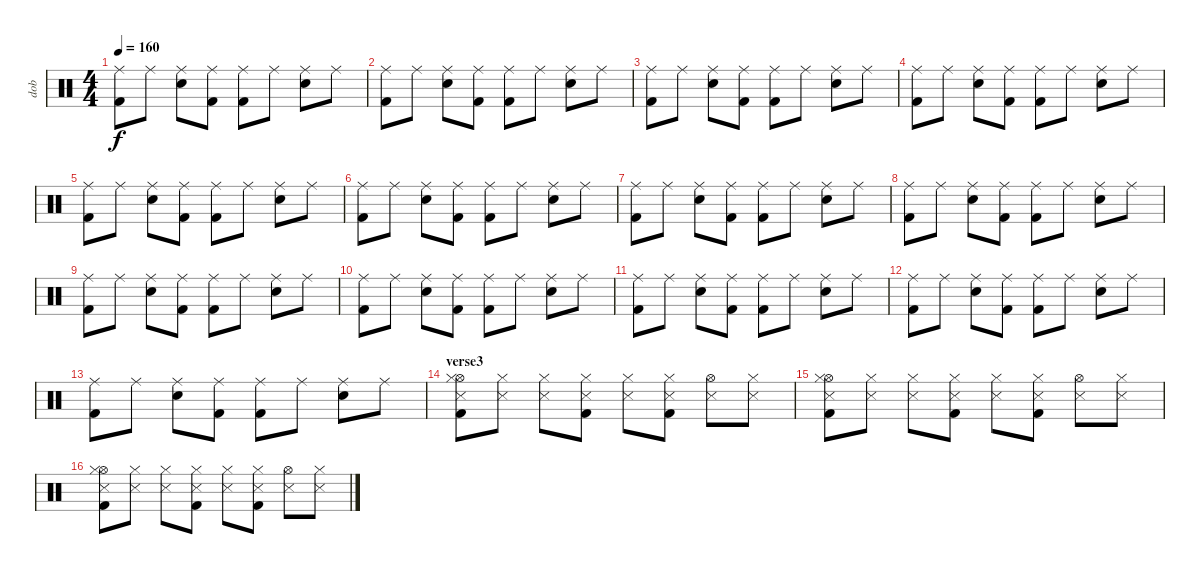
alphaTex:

\track ("dob" "dob") {instrument percussion}
\staff {score}
\articulation defaults
\ts (4 4)
\tempo 160
\clef neutral
\ks c
("Ride (middle)" "Kick (hit) 2").8{dy f} "Ride (middle)".8 ("Ride (middle)" "Snare (hit) 2").8 ("Ride (middle)" "Kick (hit) 2").8 ("Ride (middle)" "Kick (hit) 2").8 "Ride (middle)".8 ("Ride (middle)" "Snare (hit) 2").8 "Ride (middle)".8 |
("Ride (middle)" "Kick (hit) 2").8 "Ride (middle)".8 ("Ride (middle)" "Snare (hit) 2").8 ("Ride (middle)" "Kick (hit) 2").8 ("Ride (middle)" "Kick (hit) 2").8 "Ride (middle)".8 ("Ride (middle)" "Snare (hit) 2").8 "Ride (middle)".8 |
("Ride (middle)" "Kick (hit) 2").8 "Ride (middle)".8 ("Ride (middle)" "Snare (hit) 2").8 ("Ride (middle)" "Kick (hit) 2").8 ("Ride (middle)" "Kick (hit) 2").8 "Ride (middle)".8 ("Ride (middle)" "Snare (hit) 2").8 "Ride (middle)".8 |
("Ride (middle)" "Kick (hit) 2").8 "Ride (middle)".8 ("Ride (middle)" "Snare (hit) 2").8 ("Ride (middle)" "Kick (hit) 2").8 ("Ride (middle)" "Kick (hit) 2").8 "Ride (middle)".8 ("Ride (middle)" "Snare (hit) 2").8 "Ride (middle)".8 |
("Ride (middle)" "Kick (hit) 2").8 "Ride (middle)".8 ("Ride (middle)" "Snare (hit) 2").8 ("Ride (middle)" "Kick (hit) 2").8 ("Ride (middle)" "Kick (hit) 2").8 "Ride (middle)".8 ("Ride (middle)" "Snare (hit) 2").8 "Ride (middle)".8 |
("Ride (middle)" "Kick (hit) 2").8 "Ride (middle)".8 ("Ride (middle)" "Snare (hit) 2").8 ("Ride (middle)" "Kick (hit) 2").8 ("Ride (middle)" "Kick (hit) 2").8 "Ride (middle)".8 ("Ride (middle)" "Snare (hit) 2").8 "Ride (middle)".8 |
("Ride (middle)" "Kick (hit) 2").8 "Ride (middle)".8 ("Ride (middle)" "Snare (hit) 2").8 ("Ride (middle)" "Kick (hit) 2").8 ("Ride (middle)" "Kick (hit) 2").8 "Ride (middle)".8 ("Ride (middle)" "Snare (hit) 2").8 "Ride (middle)".8 |
("Ride (middle)" "Kick (hit) 2").8 "Ride (middle)".8 ("Ride (middle)" "Snare (hit) 2").8 ("Ride (middle)" "Kick (hit) 2").8 ("Ride (middle)" "Kick (hit) 2").8 "Ride (middle)".8 ("Ride (middle)" "Snare (hit) 2").8 "Ride (middle)".8 |
("Ride (middle)" "Kick (hit) 2").8 "Ride (middle)".8 ("Ride (middle)" "Snare (hit) 2").8 ("Ride (middle)" "Kick (hit) 2").8 ("Ride (middle)" "Kick (hit) 2").8 "Ride (middle)".8 ("Ride (middle)" "Snare (hit) 2").8 "Ride (middle)".8 |
("Ride (middle)" "Kick (hit) 2").8 "Ride (middle)".8 ("Ride (middle)" "Snare (hit) 2").8 ("Ride (middle)" "Kick (hit) 2").8 ("Ride (middle)" "Kick (hit) 2").8 "Ride (middle)".8 ("Ride (middle)" "Snare (hit) 2").8 "Ride (middle)".8 |
("Ride (middle)" "Kick (hit) 2").8 "Ride (middle)".8 ("Ride (middle)" "Snare (hit) 2").8 ("Ride (middle)" "Kick (hit) 2").8 ("Ride (middle)" "Kick (hit) 2").8 "Ride (middle)".8 ("Ride (middle)" "Snare (hit) 2").8 "Ride (middle)".8 |
("Ride (middle)" "Kick (hit) 2").8 "Ride (middle)".8 ("Ride (middle)" "Snare (hit) 2").8 ("Ride (middle)" "Kick (hit) 2").8 ("Ride (middle)" "Kick (hit) 2").8 "Ride (middle)".8 ("Ride (middle)" "Snare (hit) 2").8 "Ride (middle)".8 |
("Ride (middle)" "Kick (hit) 2").8 "Ride (middle)".8 ("Ride (middle)" "Snare (hit) 2").8 ("Ride (middle)" "Kick (hit) 2").8 ("Ride (middle)" "Kick (hit) 2").8 "Ride (middle)".8 ("Ride (middle)" "Snare (hit) 2").8 "Ride (middle)".8 |
\section ("" "verse3")
("Hi-Hat (open)" "Hi-Hat (closed)" "Snare (side stick) 3" "Kick (hit) 2").8 ("Hi-Hat (closed)" "Snare (side stick) 3").8 ("Hi-Hat (closed)" "Snare (side stick) 3").8 ("Hi-Hat (closed)" "Snare (side stick) 3" "Kick (hit) 2").8 ("Hi-Hat (closed)" "Snare (side stick) 3").8 ("Hi-Hat (closed)" "Snare (side stick) 3" "Kick (hit) 2").8 ("Hi-Hat (open)" "Snare (side stick) 3").8 ("Hi-Hat (closed)" "Snare (side stick) 3").8 |
("Hi-Hat (open)" "Hi-Hat (closed)" "Snare (side stick) 3" "Kick (hit) 2").8 ("Hi-Hat (closed)" "Snare (side stick) 3").8 ("Hi-Hat (closed)" "Snare (side stick) 3").8 ("Hi-Hat (closed)" "Snare (side stick) 3" "Kick (hit) 2").8 ("Hi-Hat (closed)" "Snare (side stick) 3").8 ("Hi-Hat (closed)" "Snare (side stick) 3" "Kick (hit) 2").8 ("Hi-Hat (open)" "Snare (side stick) 3").8 ("Hi-Hat (closed)" "Snare (side stick) 3").8 |
("Hi-Hat (open)" "Hi-Hat (closed)" "Snare (side stick) 3" "Kick (hit) 2").8 ("Hi-Hat (closed)" "Snare (side stick) 3").8 ("Hi-Hat (closed)" "Snare (side stick) 3").8 ("Hi-Hat (closed)" "Snare (side stick) 3" "Kick (hit) 2").8 ("Hi-Hat (closed)" "Snare (side stick) 3").8 ("Hi-Hat (closed)" "Snare (side stick) 3" "Kick (hit) 2").8 ("Hi-Hat (open)" "Snare (side stick) 3").8 ("Hi-Hat (closed)" "Snare (side stick) 3").8
